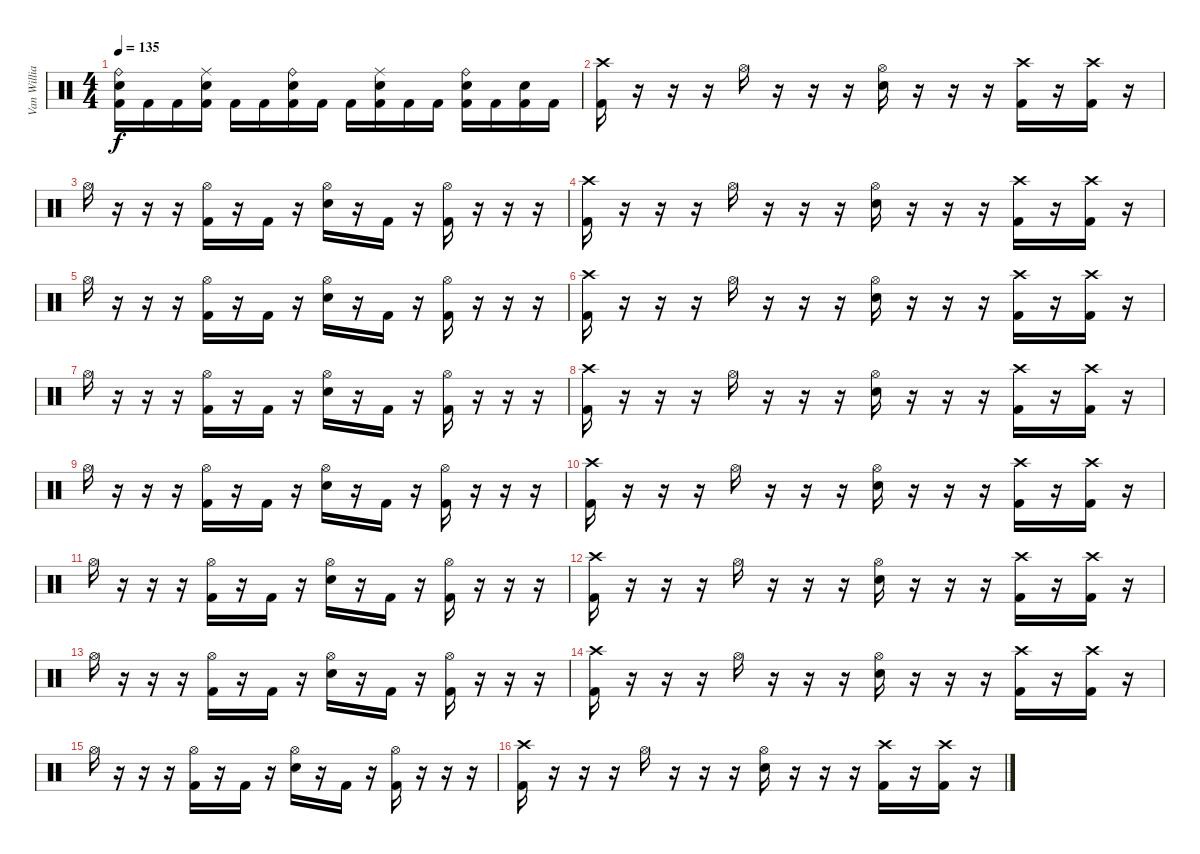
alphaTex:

\track ("Van Williams" "Van Willia") {instrument percussion}
\staff {score}
\articulation defaults
\ts (4 4)
\tempo 135
\clef neutral
\ks c
("Ride (bell)" "Kick (hit) 2" "Electric Snare (hit)").16{dy f} "Kick (hit) 2".16 "Kick (hit) 2".16 ("Ride (middle)" "Kick (hit) 2" "Electric Snare (hit)").16 "Kick (hit) 2".16 "Kick (hit) 2".16 ("Ride (bell)" "Kick (hit) 2" "Electric Snare (hit)").16 "Kick (hit) 2".16 "Kick (hit) 2".16 ("Ride (middle)" "Kick (hit) 2" "Electric Snare (hit)").16 "Kick (hit) 2".16 "Kick (hit) 2".16 ("Ride (bell)" "Kick (hit) 2" "Electric Snare (hit)").16 "Kick (hit) 2".16 ("Kick (hit) 2" "Electric Snare (hit)").16 "Kick (hit) 2".16 |
("Crash high (hit)" "Kick (hit) 2").16 r.16 r.16 r.16 "Hi-Hat (open)".16 r.16 r.16 r.16 ("Hi-Hat (open)" "Electric Snare (hit)").16 r.16 r.16 r.16 ("Crash high (hit)" "Kick (hit) 2").16 r.16 ("Crash high (hit)" "Kick (hit) 2").16 r.16 |
"Hi-Hat (open)".16 r.16 r.16 r.16 ("Hi-Hat (open)" "Kick (hit) 2").16 r.16 "Kick (hit) 2".16 r.16 ("Hi-Hat (open)" "Electric Snare (hit)").16 r.16 "Kick (hit) 2".16 r.16 ("Hi-Hat (open)" "Kick (hit) 2").16 r.16 r.16 r.16 |
("Crash high (hit)" "Kick (hit) 2").16 r.16 r.16 r.16 "Hi-Hat (open)".16 r.16 r.16 r.16 ("Hi-Hat (open)" "Electric Snare (hit)").16 r.16 r.16 r.16 ("Crash high (hit)" "Kick (hit) 2").16 r.16 ("Crash high (hit)" "Kick (hit) 2").16 r.16 |
"Hi-Hat (open)".16 r.16 r.16 r.16 ("Hi-Hat (open)" "Kick (hit) 2").16 r.16 "Kick (hit) 2".16 r.16 ("Hi-Hat (open)" "Electric Snare (hit)").16 r.16 "Kick (hit) 2".16 r.16 ("Hi-Hat (open)" "Kick (hit) 2").16 r.16 r.16 r.16 |
("Crash high (hit)" "Kick (hit) 2").16 r.16 r.16 r.16 "Hi-Hat (open)".16 r.16 r.16 r.16 ("Hi-Hat (open)" "Electric Snare (hit)").16 r.16 r.16 r.16 ("Crash high (hit)" "Kick (hit) 2").16 r.16 ("Crash high (hit)" "Kick (hit) 2").16 r.16 |
"Hi-Hat (open)".16 r.16 r.16 r.16 ("Hi-Hat (open)" "Kick (hit) 2").16 r.16 "Kick (hit) 2".16 r.16 ("Hi-Hat (open)" "Electric Snare (hit)").16 r.16 "Kick (hit) 2".16 r.16 ("Hi-Hat (open)" "Kick (hit) 2").16 r.16 r.16 r.16 |
("Crash high (hit)" "Kick (hit) 2").16 r.16 r.16 r.16 "Hi-Hat (open)".16 r.16 r.16 r.16 ("Hi-Hat (open)" "Electric Snare (hit)").16 r.16 r.16 r.16 ("Crash high (hit)" "Kick (hit) 2").16 r.16 ("Crash high (hit)" "Kick (hit) 2").16 r.16 |
"Hi-Hat (open)".16 r.16 r.16 r.16 ("Hi-Hat (open)" "Kick (hit) 2").16 r.16 "Kick (hit) 2".16 r.16 ("Hi-Hat (open)" "Electric Snare (hit)").16 r.16 "Kick (hit) 2".16 r.16 ("Hi-Hat (open)" "Kick (hit) 2").16 r.16 r.16 r.16 |
("Crash high (hit)" "Kick (hit) 2").16 r.16 r.16 r.16 "Hi-Hat (open)".16 r.16 r.16 r.16 ("Hi-Hat (open)" "Electric Snare (hit)").16 r.16 r.16 r.16 ("Crash high (hit)" "Kick (hit) 2").16 r.16 ("Crash high (hit)" "Kick (hit) 2").16 r.16 |
"Hi-Hat (open)".16 r.16 r.16 r.16 ("Hi-Hat (open)" "Kick (hit) 2").16 r.16 "Kick (hit) 2".16 r.16 ("Hi-Hat (open)" "Electric Snare (hit)").16 r.16 "Kick (hit) 2".16 r.16 ("Hi-Hat (open)" "Kick (hit) 2").16 r.16 r.16 r.16 |
("Crash high (hit)" "Kick (hit) 2").16 r.16 r.16 r.16 "Hi-Hat (open)".16 r.16 r.16 r.16 ("Hi-Hat (open)" "Electric Snare (hit)").16 r.16 r.16 r.16 ("Crash high (hit)" "Kick (hit) 2").16 r.16 ("Crash high (hit)" "Kick (hit) 2").16 r.16 |
"Hi-Hat (open)".16 r.16 r.16 r.16 ("Hi-Hat (open)" "Kick (hit) 2").16 r.16 "Kick (hit) 2".16 r.16 ("Hi-Hat (open)" "Electric Snare (hit)").16 r.16 "Kick (hit) 2".16 r.16 ("Hi-Hat (open)" "Kick (hit) 2").16 r.16 r.16 r.16 |
("Crash high (hit)" "Kick (hit) 2").16 r.16 r.16 r.16 "Hi-Hat (open)".16 r.16 r.16 r.16 ("Hi-Hat (open)" "Electric Snare (hit)").16 r.16 r.16 r.16 ("Crash high (hit)" "Kick (hit) 2").16 r.16 ("Crash high (hit)" "Kick (hit) 2").16 r.16 |
"Hi-Hat (open)".16 r.16 r.16 r.16 ("Hi-Hat (open)" "Kick (hit) 2").16 r.16 "Kick (hit) 2".16 r.16 ("Hi-Hat (open)" "Electric Snare (hit)").16 r.16 "Kick (hit) 2".16 r.16 ("Hi-Hat (open)" "Kick (hit) 2").16 r.16 r.16 r.16 |
("Crash high (hit)" "Kick (hit) 2").16 r.16 r.16 r.16 "Hi-Hat (open)".16 r.16 r.16 r.16 ("Hi-Hat (open)" "Electric Snare (hit)").16 r.16 r.16 r.16 ("Crash high (hit)" "Kick (hit) 2").16 r.16 ("Crash high (hit)" "Kick (hit) 2").16 r.16
